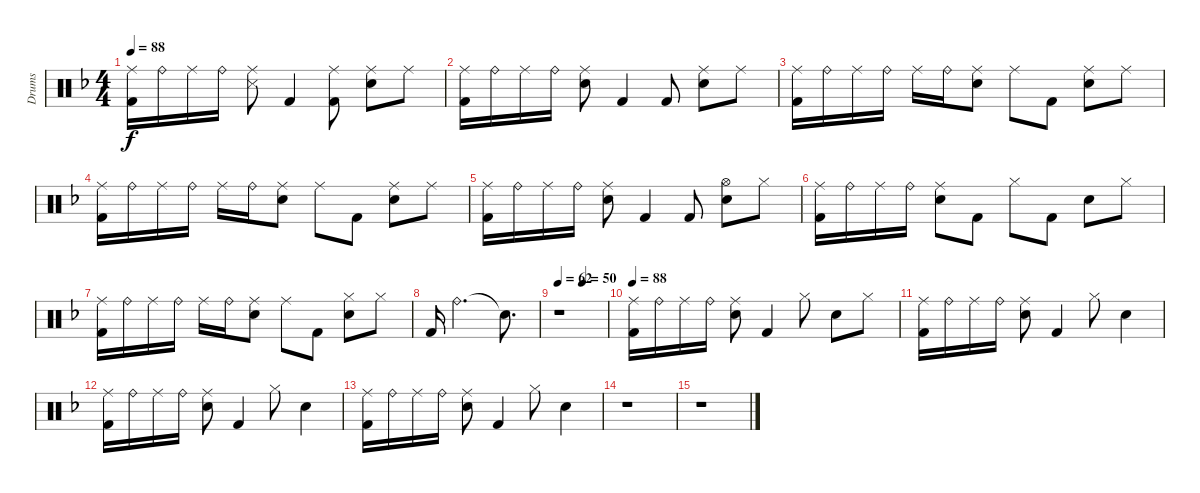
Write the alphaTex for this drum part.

\track ("Drums" "Drums") {instrument percussion}
\staff {score}
\articulation defaults
\ts (4 4)
\tempo 88
\clef neutral
\ks dminor
("Ride (middle)" "Kick (hit) 2").16{dy f} "Ride (bell)".16 "Ride (middle)".16 "Ride (bell)".16 ("Ride (middle)" "Snare (side stick) 3").8 "Kick (hit) 2".4 ("Ride (middle)" "Kick (hit) 2").8 ("Ride (middle)" "Snare (hit) 2").8 "Ride (middle)".8 |
("Ride (middle)" "Kick (hit) 2").16 "Ride (bell)".16 "Ride (middle)".16 "Ride (bell)".16 ("Ride (middle)" "Snare (hit) 2").8 "Kick (hit) 2".4 "Kick (hit) 2".8 ("Ride (middle)" "Snare (hit) 2").8 "Ride (middle)".8 |
("Ride (middle)" "Kick (hit) 2").16 "Ride (bell)".16 "Ride (middle)".16 "Ride (bell)".16 "Ride (middle)".16 "Ride (bell)".16 ("Ride (middle)" "Snare (hit) 2").8 "Ride (middle)".8 "Kick (hit) 2".8 ("Ride (middle)" "Snare (hit) 2").8 "Ride (middle)".8 |
("Ride (middle)" "Kick (hit) 2").16 "Ride (bell)".16 "Ride (middle)".16 "Ride (bell)".16 "Ride (middle)".16 "Ride (bell)".16 ("Ride (middle)" "Snare (hit) 2").8 "Ride (middle)".8 "Kick (hit) 2".8 ("Ride (middle)" "Snare (hit) 2").8 "Ride (middle)".8 |
("Ride (middle)" "Kick (hit) 2").16 "Ride (bell)".16 "Ride (middle)".16 "Ride (bell)".16 ("Ride (middle)" "Snare (hit) 2").8 "Kick (hit) 2".4 "Kick (hit) 2".8 ("Hi-Hat (open)" "Snare (hit) 2").8 "Hi-Hat (closed)".8 |
("Ride (middle)" "Kick (hit) 2").16 "Ride (bell)".16 "Ride (middle)".16 "Ride (bell)".16 ("Ride (middle)" "Snare (hit) 2").8 "Kick (hit) 2".8 "Hi-Hat (closed)".8 "Kick (hit) 2".8 "Snare (hit) 2".8 "Hi-Hat (closed)".8 |
("Ride (middle)" "Kick (hit) 2").16 "Ride (bell)".16 "Ride (middle)".16 "Ride (bell)".16 "Ride (middle)".16 "Ride (bell)".16 ("Ride (middle)" "Snare (hit) 2").8 "Ride (middle)".8 "Kick (hit) 2".8 ("Hi-Hat (closed)" "Snare (hit) 2").8 "Hi-Hat (closed)".8 |
"Kick (hit) 2".16 "Ride (bell)".2{d} "Snare (hit)"{t}.8{d} |
\tempo 62
\tempo (50 0.5)
r.1 |
\tempo 88
("Ride (middle)" "Kick (hit) 2").16 "Ride (bell)".16 "Ride (middle)".16 "Ride (bell)".16 ("Ride (middle)" "Snare (hit) 2").8 "Kick (hit) 2".4 "Hi-Hat (closed)".8 "Snare (hit) 2".8 "Hi-Hat (closed)".8 |
("Ride (middle)" "Kick (hit) 2").16 "Ride (bell)".16 "Ride (middle)".16 "Ride (bell)".16 ("Ride (middle)" "Snare (hit) 2").8 "Kick (hit) 2".4 "Hi-Hat (closed)".8 "Snare (hit) 2".4 |
("Ride (middle)" "Kick (hit) 2").16 "Ride (bell)".16 "Ride (middle)".16 "Ride (bell)".16 ("Ride (middle)" "Snare (hit) 2").8 "Kick (hit) 2".4 "Hi-Hat (closed)".8 "Snare (hit) 2".4 |
("Ride (middle)" "Kick (hit) 2").16 "Ride (bell)".16 "Ride (middle)".16 "Ride (bell)".16 ("Ride (middle)" "Snare (hit) 2").8 "Kick (hit) 2".4 "Hi-Hat (closed)".8 "Snare (hit) 2".4 |
r.1 |
r.1
